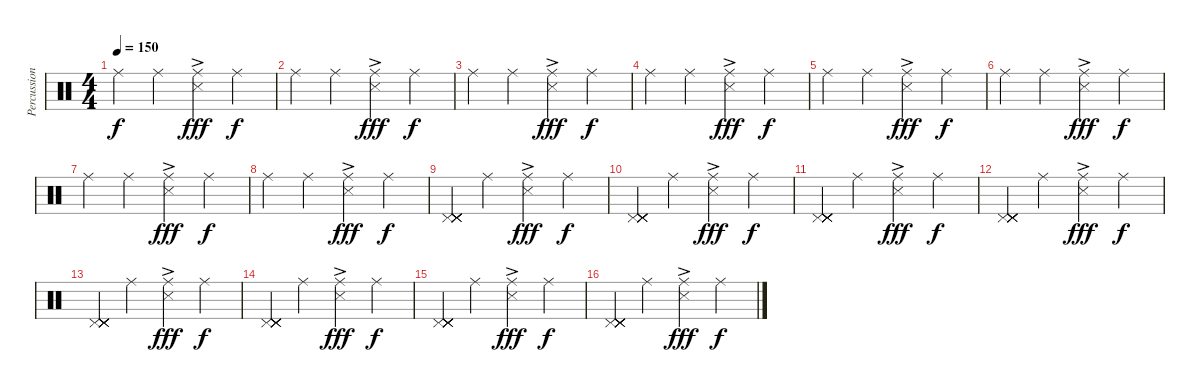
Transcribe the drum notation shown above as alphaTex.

\track ("Percussion [Patrick Wilson]" "Percussion") {instrument percussion}
\staff {score}
\articulation defaults
\ts (4 4)
\tempo 150
\clef neutral
\ks c "Ride (middle)".4{dy f} "Ride (middle)".4
("Ride (middle)"{ac} "Snare (side stick) 3").4{dy fff} "Ride (middle)".4{dy f} |
"Ride (middle)".4 "Ride (middle)".4 ("Ride (middle)"{ac} "Snare (side stick) 3").4{dy fff} "Ride (middle)".4{dy f} |
"Ride (middle)".4 "Ride (middle)".4 ("Ride (middle)"{ac} "Snare (side stick) 3").4{dy fff} "Ride (middle)".4{dy f} |
"Ride (middle)".4 "Ride (middle)".4 ("Ride (middle)"{ac} "Snare (side stick) 3").4{dy fff} "Ride (middle)".4{dy f} |
"Ride (middle)".4 "Ride (middle)".4 ("Ride (middle)"{ac} "Snare (side stick) 3").4{dy fff} "Ride (middle)".4{dy f} |
"Ride (middle)".4 "Ride (middle)".4 ("Ride (middle)"{ac} "Snare (side stick) 3").4{dy fff} "Ride (middle)".4{dy f} |
"Ride (middle)".4 "Ride (middle)".4 ("Ride (middle)"{ac} "Snare (side stick) 3").4{dy fff} "Ride (middle)".4{dy f} |
"Ride (middle)".4 "Ride (middle)".4 ("Ride (middle)"{ac} "Snare (side stick) 3").4{dy fff} "Ride (middle)".4{dy f} |
("Pedal Hi-Hat (hit)" "Pedal Hi-Hat (hit)" "Pedal Hi-Hat (hit)" "Pedal Hi-Hat (hit)" "Pedal Hi-Hat (hit)" "Pedal Hi-Hat (hit)").4{volume 16} "Ride (middle)".4{volume 10} ("Ride (middle)"{ac} "Snare (side stick) 3").4{dy fff} "Ride (middle)".4{dy f} |
("Pedal Hi-Hat (hit)" "Pedal Hi-Hat (hit)" "Pedal Hi-Hat (hit)" "Pedal Hi-Hat (hit)" "Pedal Hi-Hat (hit)" "Pedal Hi-Hat (hit)").4{volume 16} "Ride (middle)".4{volume 10} ("Ride (middle)"{ac} "Snare (side stick) 3").4{dy fff} "Ride (middle)".4{dy f} |
("Pedal Hi-Hat (hit)" "Pedal Hi-Hat (hit)" "Pedal Hi-Hat (hit)" "Pedal Hi-Hat (hit)" "Pedal Hi-Hat (hit)" "Pedal Hi-Hat (hit)").4{volume 16} "Ride (middle)".4{volume 10} ("Ride (middle)"{ac} "Snare (side stick) 3").4{dy fff} "Ride (middle)".4{dy f} |
("Pedal Hi-Hat (hit)" "Pedal Hi-Hat (hit)" "Pedal Hi-Hat (hit)" "Pedal Hi-Hat (hit)" "Pedal Hi-Hat (hit)" "Pedal Hi-Hat (hit)").4{volume 16} "Ride (middle)".4{volume 10} ("Ride (middle)"{ac} "Snare (side stick) 3").4{dy fff} "Ride (middle)".4{dy f} |
("Pedal Hi-Hat (hit)" "Pedal Hi-Hat (hit)" "Pedal Hi-Hat (hit)" "Pedal Hi-Hat (hit)" "Pedal Hi-Hat (hit)" "Pedal Hi-Hat (hit)").4{volume 16} "Ride (middle)".4{volume 10} ("Ride (middle)"{ac} "Snare (side stick) 3").4{dy fff} "Ride (middle)".4{dy f} |
("Pedal Hi-Hat (hit)" "Pedal Hi-Hat (hit)" "Pedal Hi-Hat (hit)" "Pedal Hi-Hat (hit)" "Pedal Hi-Hat (hit)" "Pedal Hi-Hat (hit)").4{volume 16} "Ride (middle)".4{volume 10} ("Ride (middle)"{ac} "Snare (side stick) 3").4{dy fff} "Ride (middle)".4{dy f} |
("Pedal Hi-Hat (hit)" "Pedal Hi-Hat (hit)" "Pedal Hi-Hat (hit)" "Pedal Hi-Hat (hit)" "Pedal Hi-Hat (hit)" "Pedal Hi-Hat (hit)").4{volume 16} "Ride (middle)".4{volume 10} ("Ride (middle)"{ac} "Snare (side stick) 3").4{dy fff} "Ride (middle)".4{dy f} |
("Pedal Hi-Hat (hit)" "Pedal Hi-Hat (hit)" "Pedal Hi-Hat (hit)" "Pedal Hi-Hat (hit)" "Pedal Hi-Hat (hit)" "Pedal Hi-Hat (hit)").4{volume 16} "Ride (middle)".4{volume 10} ("Ride (middle)"{ac} "Snare (side stick) 3").4{dy fff} "Ride (middle)".4{dy f}
